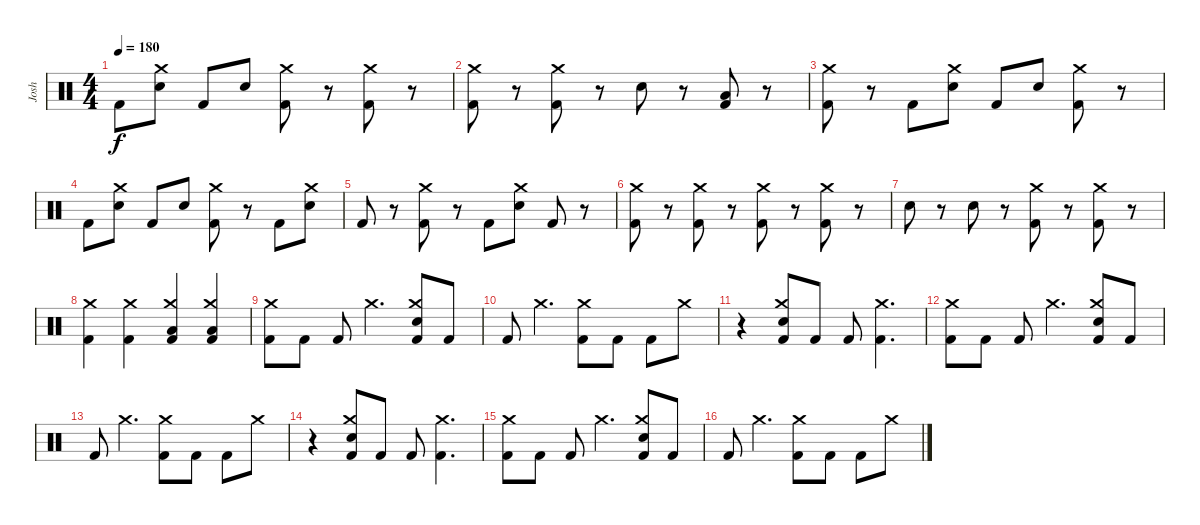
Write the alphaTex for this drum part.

\track ("Josh" "Josh") {instrument percussion}
\staff {score}
\articulation defaults
\ts (4 4)
\tempo 180
\clef neutral
\ks c "Kick (hit) 2".8{dy f}
("Crash medium (hit)" "Electric Snare (hit)").8 "Kick (hit) 2".8 "Electric Snare (hit)".8 ("Crash medium (hit)" "Kick (hit) 2").8 r.8 ("Crash medium (hit)" "Kick (hit) 2").8 r.8 |
("Crash medium (hit)" "Kick (hit) 2").8 r.8 ("Crash medium (hit)" "Kick (hit) 2").8 r.8 "Electric Snare (hit)".8 r.8 ("Low Floor Tom (hit)" "Kick (hit) 2").8 r.8 |
("Crash medium (hit)" "Kick (hit) 2").8 r.8 "Kick (hit) 2".8 ("Crash medium (hit)" "Electric Snare (hit)").8 "Kick (hit) 2".8 "Electric Snare (hit)".8 ("Crash medium (hit)" "Kick (hit) 2").8 r.8 |
"Kick (hit) 2".8 ("Crash medium (hit)" "Electric Snare (hit)").8 "Kick (hit) 2".8 "Electric Snare (hit)".8 ("Crash medium (hit)" "Kick (hit) 2").8 r.8 "Kick (hit) 2".8 ("Crash medium (hit)" "Electric Snare (hit)").8 |
"Kick (hit) 2".8 r.8 ("Crash medium (hit)" "Kick (hit) 2").8 r.8 "Kick (hit) 2".8 ("Crash medium (hit)" "Electric Snare (hit)").8 "Kick (hit) 2".8 r.8 |
("Crash medium (hit)" "Kick (hit) 2").8 r.8 ("Crash medium (hit)" "Kick (hit) 2").8 r.8 ("Crash medium (hit)" "Kick (hit) 2").8 r.8 ("Crash medium (hit)" "Kick (hit) 2").8 r.8 |
"Electric Snare (hit)".8 r.8 "Electric Snare (hit)".8 r.8 ("Crash medium (hit)" "Kick (hit) 2").8 r.8 ("Crash medium (hit)" "Kick (hit) 2").8 r.8 |
("Crash medium (hit)" "Kick (hit) 2").4 ("Crash medium (hit)" "Kick (hit) 2").4 ("Crash medium (hit)" "Low Tom (hit)" "Kick (hit) 2").4 ("Crash medium (hit)" "Low Tom (hit)" "Kick (hit) 2").4 |
("Crash medium (hit)" "Kick (hit) 2").8 "Kick (hit) 2".8 "Kick (hit) 2".8 "Crash medium (hit)".4{d} ("Crash medium (hit)" "Electric Snare (hit)" "Kick (hit) 2").8 "Kick (hit) 2".8 |
"Kick (hit) 2".8 "Crash medium (hit)".4{d} ("Crash medium (hit)" "Kick (hit) 2").8 "Kick (hit) 2".8 "Kick (hit) 2".8 "Crash medium (hit)".8 |
r.4 ("Crash medium (hit)" "Electric Snare (hit)" "Kick (hit) 2").8 "Kick (hit) 2".8 "Kick (hit) 2".8 ("Crash medium (hit)" "Kick (hit) 2").4{d} |
("Crash medium (hit)" "Kick (hit) 2").8 "Kick (hit) 2".8 "Kick (hit) 2".8 "Crash medium (hit)".4{d} ("Crash medium (hit)" "Electric Snare (hit)" "Kick (hit) 2").8 "Kick (hit) 2".8 |
"Kick (hit) 2".8 "Crash medium (hit)".4{d} ("Crash medium (hit)" "Kick (hit) 2").8 "Kick (hit) 2".8 "Kick (hit) 2".8 "Crash medium (hit)".8 |
r.4 ("Crash medium (hit)" "Electric Snare (hit)" "Kick (hit) 2").8 "Kick (hit) 2".8 "Kick (hit) 2".8 ("Crash medium (hit)" "Kick (hit) 2").4{d} |
("Crash medium (hit)" "Kick (hit) 2").8 "Kick (hit) 2".8 "Kick (hit) 2".8 "Crash medium (hit)".4{d} ("Crash medium (hit)" "Electric Snare (hit)" "Kick (hit) 2").8 "Kick (hit) 2".8 |
"Kick (hit) 2".8 "Crash medium (hit)".4{d} ("Crash medium (hit)" "Kick (hit) 2").8 "Kick (hit) 2".8 "Kick (hit) 2".8 "Crash medium (hit)".8
